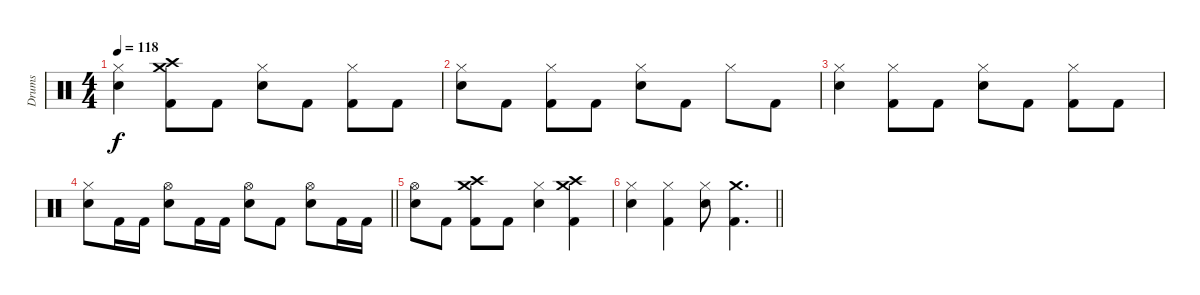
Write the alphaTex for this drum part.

\track ("Drums" "Drums") {instrument percussion}
\staff {score}
\articulation defaults
\ts (4 4)
\tempo 118
\clef neutral
\ks c
("Hi-Hat (closed)" "Snare (hit) 2").4{dy f volume 5} ("Crash medium (hit)" "Crash high (hit)" "Kick (hit) 2").8 "Kick (hit) 2".8 ("Hi-Hat (closed)" "Snare (hit) 2").8 "Kick (hit) 2".8 ("Hi-Hat (closed)" "Kick (hit) 2").8 "Kick (hit) 2".8 |
("Hi-Hat (closed)" "Snare (hit) 2").8 "Kick (hit) 2".8 ("Hi-Hat (closed)" "Kick (hit) 2").8 "Kick (hit) 2".8 ("Hi-Hat (closed)" "Snare (hit) 2").8 "Kick (hit) 2".8 "Hi-Hat (closed)".8 "Kick (hit) 2".8 |
("Hi-Hat (closed)" "Snare (hit) 2").4 ("Hi-Hat (closed)" "Kick (hit) 2").8 "Kick (hit) 2".8 ("Hi-Hat (closed)" "Snare (hit) 2").8 "Kick (hit) 2".8 ("Hi-Hat (closed)" "Kick (hit) 2").8 "Kick (hit) 2".8 |
\barLineRight lightlight
("Hi-Hat (closed)" "Snare (hit) 2").8 "Kick (hit) 2".16 "Kick (hit) 2".16 ("Hi-Hat (open)" "Snare (hit) 2").8 "Kick (hit) 2".16 "Kick (hit) 2".16 ("Hi-Hat (open)" "Snare (hit) 2").8 "Kick (hit) 2".8 ("Hi-Hat (open)" "Snare (hit) 2").8 "Kick (hit) 2".16 "Kick (hit) 2".16 |
("Hi-Hat (open)" "Snare (hit) 2").8 "Kick (hit) 2".8 ("Crash medium (hit)" "Crash high (hit)" "Kick (hit) 2").8 "Kick (hit) 2".8 ("Hi-Hat (closed)" "Snare (hit) 2").4 ("Crash medium (hit)" "Crash high (hit)" "Kick (hit) 2").4 |
\barLineRight lightlight
("Hi-Hat (closed)" "Snare (hit) 2").4 ("Hi-Hat (closed)" "Kick (hit) 2").4 ("Hi-Hat (closed)" "Snare (hit) 2").8 ("Crash medium (hit)" "Kick (hit) 2").4{d}
